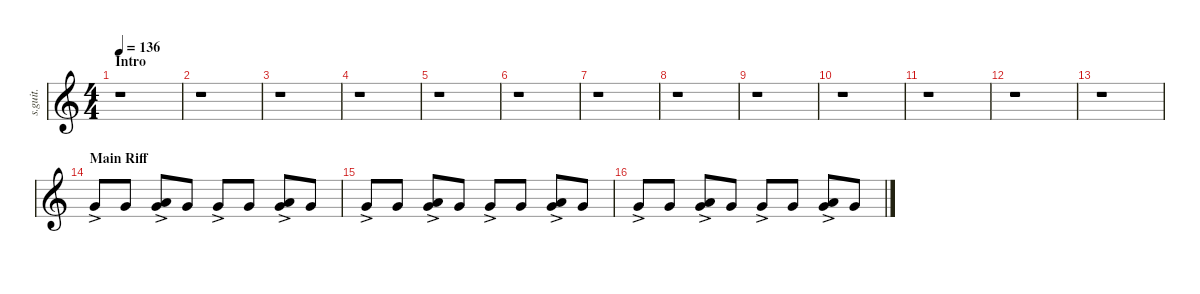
\defaultSystemsLayout 4
\hideDynamics
\bracketExtendMode nobrackets
\track ("Shawn Crahan " "s.guit.") {instrument percussion}
\staff {score}
\articulation defaults
\ts (4 4)
\beaming (8 2 2 2 2)
\section ("" "Intro")
\tempo 136
\clef g2
\ks c
r.1{dy fff} |
r.1 |
r.1 |
r.1 |
r.1 |
r.1 |
r.1 |
r.1 |
r.1 |
r.1 |
r.1 |
r.1 |
r.1 |
\section ("" "Main Riff")
"Very Low Tom (hit)"{ac}.8{lyrics (0 "") lyrics (1 "") lyrics (2 "") lyrics (3 "") lyrics (4 "")} "Very Low Tom (hit)".8{lyrics (0 "") lyrics (1 "") lyrics (2 "") lyrics (3 "") lyrics (4 "")} ("Very Low Tom (hit)"{ac} "Low Floor Tom (hit)").8{lyrics (0 "") lyrics (1 "") lyrics (2 "") lyrics (3 "") lyrics (4 "")} "Very Low Tom (hit)".8{lyrics (0 "") lyrics (1 "") lyrics (2 "") lyrics (3 "") lyrics (4 "")} "Very Low Tom (hit)"{ac}.8{lyrics (0 "") lyrics (1 "") lyrics (2 "") lyrics (3 "") lyrics (4 "")} "Very Low Tom (hit)".8{lyrics (0 "") lyrics (1 "") lyrics (2 "") lyrics (3 "") lyrics (4 "")} ("Very Low Tom (hit)"{ac} "Low Floor Tom (hit)").8{lyrics (0 "") lyrics (1 "") lyrics (2 "") lyrics (3 "") lyrics (4 "")} "Very Low Tom (hit)".8{lyrics (0 "") lyrics (1 "") lyrics (2 "") lyrics (3 "") lyrics (4 "")} |
"Very Low Tom (hit)"{ac}.8{lyrics (0 "") lyrics (1 "") lyrics (2 "") lyrics (3 "") lyrics (4 "")} "Very Low Tom (hit)".8{lyrics (0 "") lyrics (1 "") lyrics (2 "") lyrics (3 "") lyrics (4 "")} ("Very Low Tom (hit)"{ac} "Low Floor Tom (hit)").8{lyrics (0 "") lyrics (1 "") lyrics (2 "") lyrics (3 "") lyrics (4 "")} "Very Low Tom (hit)".8{lyrics (0 "") lyrics (1 "") lyrics (2 "") lyrics (3 "") lyrics (4 "")} "Very Low Tom (hit)"{ac}.8{lyrics (0 "") lyrics (1 "") lyrics (2 "") lyrics (3 "") lyrics (4 "")} "Very Low Tom (hit)".8{lyrics (0 "") lyrics (1 "") lyrics (2 "") lyrics (3 "") lyrics (4 "")} ("Very Low Tom (hit)"{ac} "Low Floor Tom (hit)").8{lyrics (0 "") lyrics (1 "") lyrics (2 "") lyrics (3 "") lyrics (4 "")} "Very Low Tom (hit)".8{lyrics (0 "") lyrics (1 "") lyrics (2 "") lyrics (3 "") lyrics (4 "")} |
"Very Low Tom (hit)"{ac}.8{lyrics (0 "") lyrics (1 "") lyrics (2 "") lyrics (3 "") lyrics (4 "")} "Very Low Tom (hit)".8{lyrics (0 "") lyrics (1 "") lyrics (2 "") lyrics (3 "") lyrics (4 "")} ("Very Low Tom (hit)"{ac} "Low Floor Tom (hit)").8{lyrics (0 "") lyrics (1 "") lyrics (2 "") lyrics (3 "") lyrics (4 "")} "Very Low Tom (hit)".8{lyrics (0 "") lyrics (1 "") lyrics (2 "") lyrics (3 "") lyrics (4 "")} "Very Low Tom (hit)"{ac}.8{lyrics (0 "") lyrics (1 "") lyrics (2 "") lyrics (3 "") lyrics (4 "")} "Very Low Tom (hit)".8{lyrics (0 "") lyrics (1 "") lyrics (2 "") lyrics (3 "") lyrics (4 "")} ("Very Low Tom (hit)"{ac} "Low Floor Tom (hit)").8{lyrics (0 "") lyrics (1 "") lyrics (2 "") lyrics (3 "") lyrics (4 "")} "Very Low Tom (hit)".8{lyrics (0 "") lyrics (1 "") lyrics (2 "") lyrics (3 "") lyrics (4 "")}
